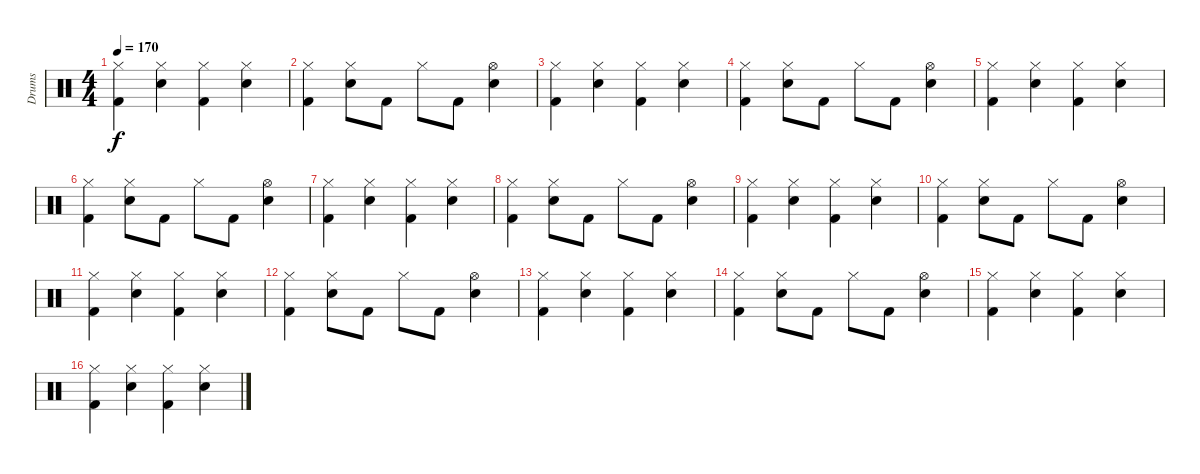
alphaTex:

\track ("Drums" "Drums") {instrument percussion}
\staff {score}
\articulation defaults
\ts (4 4)
\tempo 170
\clef neutral
\ks c
("Hi-Hat (closed)" "Kick (hit) 2").4{dy f} ("Hi-Hat (closed)" "Snare (hit) 2").4 ("Hi-Hat (closed)" "Kick (hit) 2").4 ("Hi-Hat (closed)" "Snare (hit) 2").4 |
("Hi-Hat (closed)" "Kick (hit) 2").4 ("Hi-Hat (closed)" "Snare (hit) 2").8 "Kick (hit) 2".8 "Hi-Hat (closed)".8 "Kick (hit) 2".8 ("Hi-Hat (open)" "Snare (hit) 2").4 |
("Hi-Hat (closed)" "Kick (hit) 2").4 ("Hi-Hat (closed)" "Snare (hit) 2").4 ("Hi-Hat (closed)" "Kick (hit) 2").4 ("Hi-Hat (closed)" "Snare (hit) 2").4 |
("Hi-Hat (closed)" "Kick (hit) 2").4 ("Hi-Hat (closed)" "Snare (hit) 2").8 "Kick (hit) 2".8 "Hi-Hat (closed)".8 "Kick (hit) 2".8 ("Hi-Hat (open)" "Snare (hit) 2").4 |
("Hi-Hat (closed)" "Kick (hit) 2").4 ("Hi-Hat (closed)" "Snare (hit) 2").4 ("Hi-Hat (closed)" "Kick (hit) 2").4 ("Hi-Hat (closed)" "Snare (hit) 2").4 |
("Hi-Hat (closed)" "Kick (hit) 2").4 ("Hi-Hat (closed)" "Snare (hit) 2").8 "Kick (hit) 2".8 "Hi-Hat (closed)".8 "Kick (hit) 2".8 ("Hi-Hat (open)" "Snare (hit) 2").4 |
("Hi-Hat (closed)" "Kick (hit) 2").4 ("Hi-Hat (closed)" "Snare (hit) 2").4 ("Hi-Hat (closed)" "Kick (hit) 2").4 ("Hi-Hat (closed)" "Snare (hit) 2").4 |
("Hi-Hat (closed)" "Kick (hit) 2").4 ("Hi-Hat (closed)" "Snare (hit) 2").8 "Kick (hit) 2".8 "Hi-Hat (closed)".8 "Kick (hit) 2".8 ("Hi-Hat (open)" "Snare (hit) 2").4 |
("Hi-Hat (closed)" "Kick (hit) 2").4 ("Hi-Hat (closed)" "Snare (hit) 2").4 ("Hi-Hat (closed)" "Kick (hit) 2").4 ("Hi-Hat (closed)" "Snare (hit) 2").4 |
("Hi-Hat (closed)" "Kick (hit) 2").4 ("Hi-Hat (closed)" "Snare (hit) 2").8 "Kick (hit) 2".8 "Hi-Hat (closed)".8 "Kick (hit) 2".8 ("Hi-Hat (open)" "Snare (hit) 2").4 |
("Hi-Hat (closed)" "Kick (hit) 2").4 ("Hi-Hat (closed)" "Snare (hit) 2").4 ("Hi-Hat (closed)" "Kick (hit) 2").4 ("Hi-Hat (closed)" "Snare (hit) 2").4 |
("Hi-Hat (closed)" "Kick (hit) 2").4 ("Hi-Hat (closed)" "Snare (hit) 2").8 "Kick (hit) 2".8 "Hi-Hat (closed)".8 "Kick (hit) 2".8 ("Hi-Hat (open)" "Snare (hit) 2").4 |
("Hi-Hat (closed)" "Kick (hit) 2").4 ("Hi-Hat (closed)" "Snare (hit) 2").4 ("Hi-Hat (closed)" "Kick (hit) 2").4 ("Hi-Hat (closed)" "Snare (hit) 2").4 |
("Hi-Hat (closed)" "Kick (hit) 2").4 ("Hi-Hat (closed)" "Snare (hit) 2").8 "Kick (hit) 2".8 "Hi-Hat (closed)".8 "Kick (hit) 2".8 ("Hi-Hat (open)" "Snare (hit) 2").4 |
("Hi-Hat (closed)" "Kick (hit) 2").4 ("Hi-Hat (closed)" "Snare (hit) 2").4 ("Hi-Hat (closed)" "Kick (hit) 2").4 ("Hi-Hat (closed)" "Snare (hit) 2").4 |
("Hi-Hat (closed)" "Kick (hit) 2").4 ("Hi-Hat (closed)" "Snare (hit) 2").4 ("Hi-Hat (closed)" "Kick (hit) 2").4 ("Hi-Hat (closed)" "Snare (hit) 2").4
